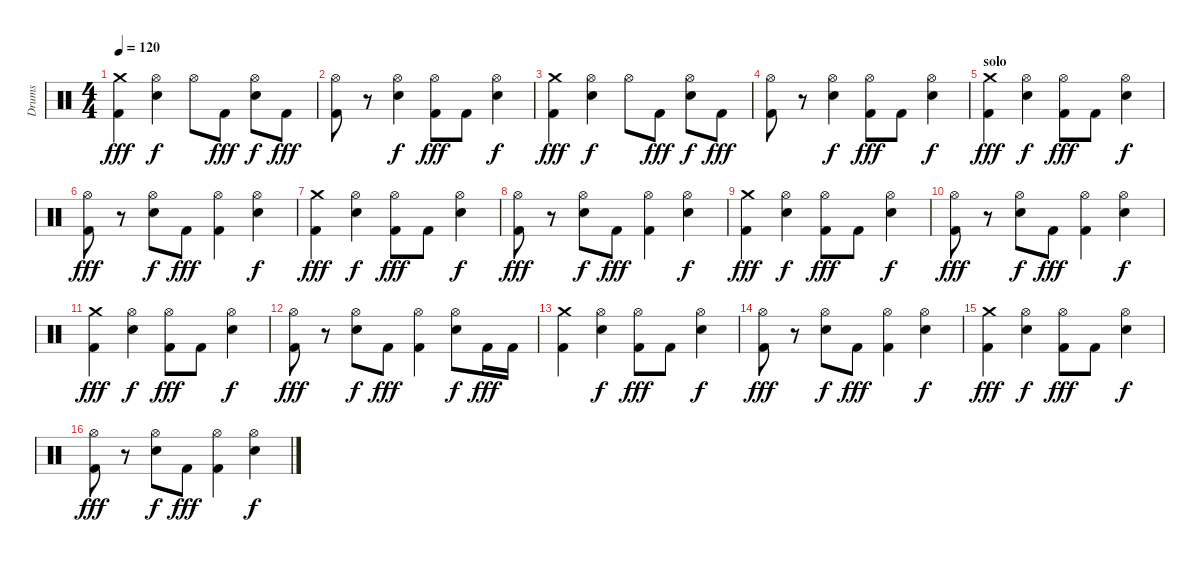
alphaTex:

\track ("Drums" "Drums") {instrument percussion}
\staff {score}
\articulation defaults
\ts (4 4)
\tempo 120
\clef neutral
\ks c
("Crash medium (hit)" "Kick (hit) 2").4{dy fff} ("Hi-Hat (open)" "Electric Snare (hit)").4{dy f} "Hi-Hat (open)".8 "Kick (hit) 2".8{dy fff} ("Hi-Hat (open)" "Electric Snare (hit)").8{dy f} "Kick (hit) 2".8{dy fff} |
("Hi-Hat (open)" "Kick (hit) 2").8 r.8 ("Hi-Hat (open)" "Electric Snare (hit)").4{dy f} ("Hi-Hat (open)" "Kick (hit) 2").8{dy fff} "Kick (hit) 2".8 ("Hi-Hat (open)" "Electric Snare (hit)").4{dy f} |
("Crash medium (hit)" "Kick (hit) 2").4{dy fff} ("Hi-Hat (open)" "Electric Snare (hit)").4{dy f} "Hi-Hat (open)".8 "Kick (hit) 2".8{dy fff} ("Hi-Hat (open)" "Electric Snare (hit)").8{dy f} "Kick (hit) 2".8{dy fff} |
("Hi-Hat (open)" "Kick (hit) 2").8 r.8 ("Hi-Hat (open)" "Electric Snare (hit)").4{dy f} ("Hi-Hat (open)" "Kick (hit) 2").8{dy fff} "Kick (hit) 2".8 ("Hi-Hat (open)" "Electric Snare (hit)").4{dy f} |
\section ("" "solo")
("Crash medium (hit)" "Kick (hit) 2").4{dy fff} ("Hi-Hat (open)" "Electric Snare (hit)").4{dy f} ("Hi-Hat (open)" "Kick (hit) 2").8{dy fff} "Kick (hit) 2".8 ("Hi-Hat (open)" "Electric Snare (hit)").4{dy f} |
("Hi-Hat (open)" "Kick (hit) 2").8{dy fff} r.8 ("Hi-Hat (open)" "Electric Snare (hit)").8{dy f} "Kick (hit) 2".8{dy fff} ("Hi-Hat (open)" "Kick (hit) 2").4 ("Hi-Hat (open)" "Electric Snare (hit)").4{dy f} |
("Crash medium (hit)" "Kick (hit) 2").4{dy fff} ("Hi-Hat (open)" "Electric Snare (hit)").4{dy f} ("Hi-Hat (open)" "Kick (hit) 2").8{dy fff} "Kick (hit) 2".8 ("Hi-Hat (open)" "Electric Snare (hit)").4{dy f} |
("Hi-Hat (open)" "Kick (hit) 2").8{dy fff} r.8 ("Hi-Hat (open)" "Electric Snare (hit)").8{dy f} "Kick (hit) 2".8{dy fff} ("Hi-Hat (open)" "Kick (hit) 2").4 ("Hi-Hat (open)" "Electric Snare (hit)").4{dy f} |
("Crash medium (hit)" "Kick (hit) 2").4{dy fff} ("Hi-Hat (open)" "Electric Snare (hit)").4{dy f} ("Hi-Hat (open)" "Kick (hit) 2").8{dy fff} "Kick (hit) 2".8 ("Hi-Hat (open)" "Electric Snare (hit)").4{dy f} |
("Hi-Hat (open)" "Kick (hit) 2").8{dy fff} r.8 ("Hi-Hat (open)" "Electric Snare (hit)").8{dy f} "Kick (hit) 2".8{dy fff} ("Hi-Hat (open)" "Kick (hit) 2").4 ("Hi-Hat (open)" "Electric Snare (hit)").4{dy f} |
("Crash medium (hit)" "Kick (hit) 2").4{dy fff} ("Hi-Hat (open)" "Electric Snare (hit)").4{dy f} ("Hi-Hat (open)" "Kick (hit) 2").8{dy fff} "Kick (hit) 2".8 ("Hi-Hat (open)" "Electric Snare (hit)").4{dy f} |
("Hi-Hat (open)" "Kick (hit) 2").8{dy fff} r.8 ("Hi-Hat (open)" "Electric Snare (hit)").8{dy f} "Kick (hit) 2".8{dy fff} ("Hi-Hat (open)" "Kick (hit) 2").4 ("Hi-Hat (open)" "Electric Snare (hit)").8{dy f} "Kick (hit) 2".16{dy fff} "Kick (hit) 2".16 |
("Crash medium (hit)" "Kick (hit) 2").4 ("Hi-Hat (open)" "Electric Snare (hit)").4{dy f} ("Hi-Hat (open)" "Kick (hit) 2").8{dy fff} "Kick (hit) 2".8 ("Hi-Hat (open)" "Electric Snare (hit)").4{dy f} |
("Hi-Hat (open)" "Kick (hit) 2").8{dy fff} r.8 ("Hi-Hat (open)" "Electric Snare (hit)").8{dy f} "Kick (hit) 2".8{dy fff} ("Hi-Hat (open)" "Kick (hit) 2").4 ("Hi-Hat (open)" "Electric Snare (hit)").4{dy f} |
("Crash medium (hit)" "Kick (hit) 2").4{dy fff} ("Hi-Hat (open)" "Electric Snare (hit)").4{dy f} ("Hi-Hat (open)" "Kick (hit) 2").8{dy fff} "Kick (hit) 2".8 ("Hi-Hat (open)" "Electric Snare (hit)").4{dy f} |
("Hi-Hat (open)" "Kick (hit) 2").8{dy fff} r.8 ("Hi-Hat (open)" "Electric Snare (hit)").8{dy f} "Kick (hit) 2".8{dy fff} ("Hi-Hat (open)" "Kick (hit) 2").4 ("Hi-Hat (open)" "Electric Snare (hit)").4{dy f}
